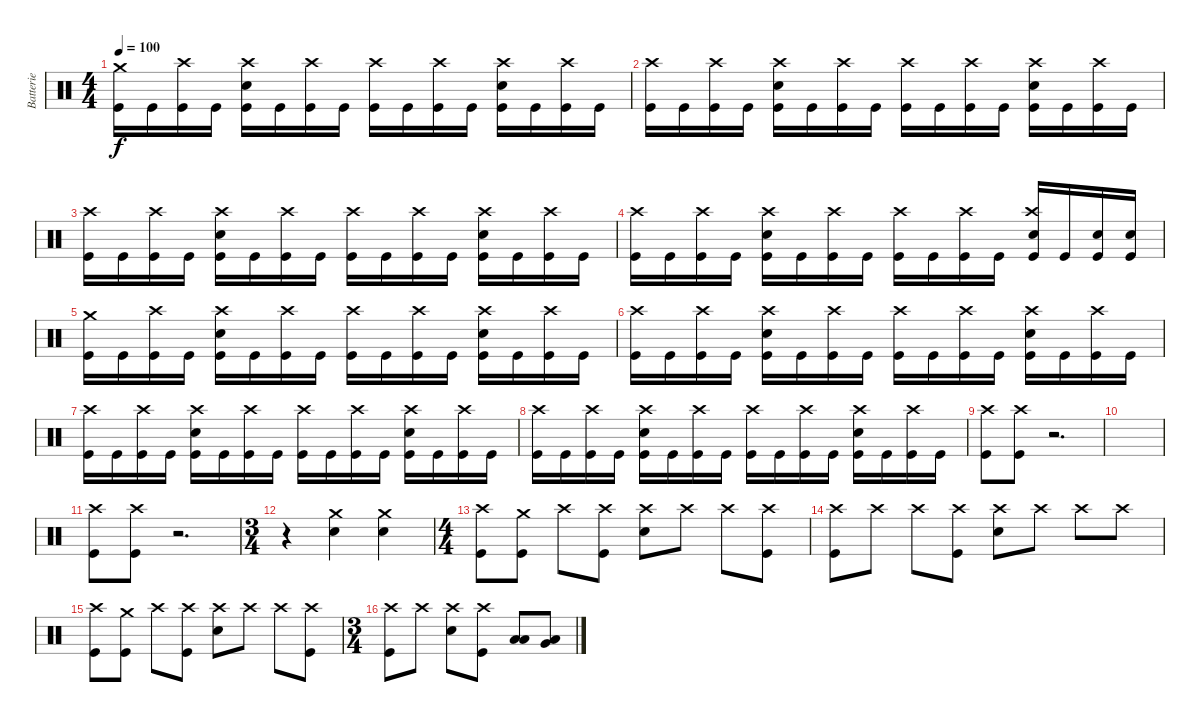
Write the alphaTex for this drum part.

\track ("Batterie" "Batterie") {instrument percussion}
\staff {score}
\articulation defaults
\ts (4 4)
\tempo 100
\clef neutral
\ks c
("Crash medium (hit)" "Kick (hit)").16{dy f} "Kick (hit)".16 ("Crash high (hit)" "Kick (hit)").16 "Kick (hit)".16 ("Crash high (hit)" "Electric Snare (hit)" "Kick (hit)").16 "Kick (hit)".16 ("Crash high (hit)" "Kick (hit)").16 "Kick (hit)".16 ("Crash high (hit)" "Kick (hit)").16 "Kick (hit)".16 ("Crash high (hit)" "Kick (hit)").16 "Kick (hit)".16 ("Crash high (hit)" "Electric Snare (hit)" "Kick (hit)").16 "Kick (hit)".16 ("Crash high (hit)" "Kick (hit)").16 "Kick (hit)".16 |
("Crash high (hit)" "Kick (hit)").16 "Kick (hit)".16 ("Crash high (hit)" "Kick (hit)").16 "Kick (hit)".16 ("Crash high (hit)" "Electric Snare (hit)" "Kick (hit)").16 "Kick (hit)".16 ("Crash high (hit)" "Kick (hit)").16 "Kick (hit)".16 ("Crash high (hit)" "Kick (hit)").16 "Kick (hit)".16 ("Crash high (hit)" "Kick (hit)").16 "Kick (hit)".16 ("Crash high (hit)" "Electric Snare (hit)" "Kick (hit)").16 "Kick (hit)".16 ("Crash high (hit)" "Kick (hit)").16 "Kick (hit)".16 |
("Crash high (hit)" "Kick (hit)").16 "Kick (hit)".16 ("Crash high (hit)" "Kick (hit)").16 "Kick (hit)".16 ("Crash high (hit)" "Electric Snare (hit)" "Kick (hit)").16 "Kick (hit)".16 ("Crash high (hit)" "Kick (hit)").16 "Kick (hit)".16 ("Crash high (hit)" "Kick (hit)").16 "Kick (hit)".16 ("Crash high (hit)" "Kick (hit)").16 "Kick (hit)".16 ("Crash high (hit)" "Electric Snare (hit)" "Kick (hit)").16 "Kick (hit)".16 ("Crash high (hit)" "Kick (hit)").16 "Kick (hit)".16 |
("Crash high (hit)" "Kick (hit)").16 "Kick (hit)".16 ("Crash high (hit)" "Kick (hit)").16 "Kick (hit)".16 ("Crash high (hit)" "Electric Snare (hit)" "Kick (hit)").16 "Kick (hit)".16 ("Crash high (hit)" "Kick (hit)").16 "Kick (hit)".16 ("Crash high (hit)" "Kick (hit)").16 "Kick (hit)".16 ("Crash high (hit)" "Kick (hit)").16 "Kick (hit)".16 ("Crash high (hit)" "Electric Snare (hit)" "Kick (hit)").16 "Kick (hit)".16 ("Electric Snare (hit)" "Kick (hit)").16 ("Electric Snare (hit)" "Kick (hit)").16 |
("Crash medium (hit)" "Kick (hit)").16 "Kick (hit)".16 ("Crash high (hit)" "Kick (hit)").16 "Kick (hit)".16 ("Crash high (hit)" "Electric Snare (hit)" "Kick (hit)").16 "Kick (hit)".16 ("Crash high (hit)" "Kick (hit)").16 "Kick (hit)".16 ("Crash high (hit)" "Kick (hit)").16 "Kick (hit)".16 ("Crash high (hit)" "Kick (hit)").16 "Kick (hit)".16 ("Crash high (hit)" "Electric Snare (hit)" "Kick (hit)").16 "Kick (hit)".16 ("Crash high (hit)" "Kick (hit)").16 "Kick (hit)".16 |
("Crash high (hit)" "Kick (hit)").16 "Kick (hit)".16 ("Crash high (hit)" "Kick (hit)").16 "Kick (hit)".16 ("Crash high (hit)" "Electric Snare (hit)" "Kick (hit)").16 "Kick (hit)".16 ("Crash high (hit)" "Kick (hit)").16 "Kick (hit)".16 ("Crash high (hit)" "Kick (hit)").16 "Kick (hit)".16 ("Crash high (hit)" "Kick (hit)").16 "Kick (hit)".16 ("Crash high (hit)" "Electric Snare (hit)" "Kick (hit)").16 "Kick (hit)".16 ("Crash high (hit)" "Kick (hit)").16 "Kick (hit)".16 |
("Crash high (hit)" "Kick (hit)").16 "Kick (hit)".16 ("Crash high (hit)" "Kick (hit)").16 "Kick (hit)".16 ("Crash high (hit)" "Electric Snare (hit)" "Kick (hit)").16 "Kick (hit)".16 ("Crash high (hit)" "Kick (hit)").16 "Kick (hit)".16 ("Crash high (hit)" "Kick (hit)").16 "Kick (hit)".16 ("Crash high (hit)" "Kick (hit)").16 "Kick (hit)".16 ("Crash high (hit)" "Electric Snare (hit)" "Kick (hit)").16 "Kick (hit)".16 ("Crash high (hit)" "Kick (hit)").16 "Kick (hit)".16 |
("Crash high (hit)" "Kick (hit)").16 "Kick (hit)".16 ("Crash high (hit)" "Kick (hit)").16 "Kick (hit)".16 ("Crash high (hit)" "Electric Snare (hit)" "Kick (hit)").16 "Kick (hit)".16 ("Crash high (hit)" "Kick (hit)").16 "Kick (hit)".16 ("Crash high (hit)" "Kick (hit)").16 "Kick (hit)".16 ("Crash high (hit)" "Kick (hit)").16 "Kick (hit)".16 ("Crash high (hit)" "Electric Snare (hit)" "Kick (hit)").16 "Kick (hit)".16 ("Crash high (hit)" "Kick (hit)").16 "Kick (hit)".16 |
("Crash high (hit)" "Kick (hit)").8 ("Crash high (hit)" "Kick (hit)").8 r.2{d} |
|
("Crash high (hit)" "Kick (hit)").8 ("Crash high (hit)" "Kick (hit)").8 r.2{d} |
\ts (3 4)
r.4 ("Crash medium (hit)" "Electric Snare (hit)").4 ("Crash medium (hit)" "Electric Snare (hit)").4 |
\ts (4 4)
("Crash high (hit)" "Kick (hit)").8 ("Crash medium (hit)" "Kick (hit)").8 "Crash high (hit)".8 ("Crash high (hit)" "Kick (hit)").8 ("Crash high (hit)" "Electric Snare (hit)").8 "Crash high (hit)".8 "Crash high (hit)".8 ("Crash high (hit)" "Kick (hit)").8 |
("Crash high (hit)" "Kick (hit)").8 "Crash high (hit)".8 "Crash high (hit)".8 ("Crash high (hit)" "Kick (hit)").8 ("Crash high (hit)" "Electric Snare (hit)").8 "Crash high (hit)".8 "Crash high (hit)".8 "Crash high (hit)".8 |
("Crash high (hit)" "Kick (hit)").8 ("Crash medium (hit)" "Kick (hit)").8 "Crash high (hit)".8 ("Crash high (hit)" "Kick (hit)").8 ("Crash high (hit)" "Electric Snare (hit)").8 "Crash high (hit)".8 "Crash high (hit)".8 ("Crash high (hit)" "Kick (hit)").8 |
\ts (3 4)
("Crash high (hit)" "Kick (hit)").8 "Crash high (hit)".8 ("Crash high (hit)" "Electric Snare (hit)").8 ("Crash high (hit)" "Kick (hit)").8 ("Low Tom (hit)" "Low Floor Tom (hit)").8 ("Very Low Tom (hit)" "Low Floor Tom (hit)").8
